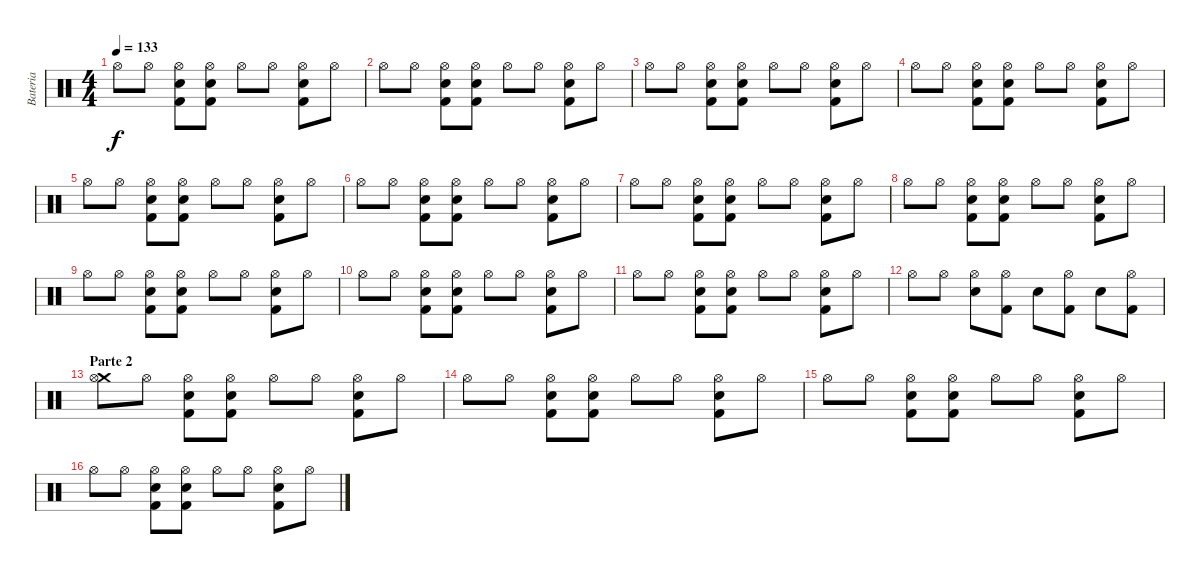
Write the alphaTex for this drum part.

\track ("Bateria" "Bateria") {instrument percussion}
\staff {score}
\articulation defaults
\ts (4 4)
\tempo 133
\clef neutral
\ks c "Hi-Hat (open)".8{dy f} "Hi-Hat (open)".8
("Kick (hit) 2" "Hi-Hat (open)" "Electric Snare (hit)").8 ("Kick (hit) 2" "Hi-Hat (open)" "Electric Snare (hit)").8 "Hi-Hat (open)".8 "Hi-Hat (open)".8 ("Kick (hit) 2" "Hi-Hat (open)" "Electric Snare (hit)").8 "Hi-Hat (open)".8 |
"Hi-Hat (open)".8 "Hi-Hat (open)".8 ("Kick (hit) 2" "Hi-Hat (open)" "Electric Snare (hit)").8 ("Kick (hit) 2" "Hi-Hat (open)" "Electric Snare (hit)").8 "Hi-Hat (open)".8 "Hi-Hat (open)".8 ("Kick (hit) 2" "Hi-Hat (open)" "Electric Snare (hit)").8 "Hi-Hat (open)".8 |
"Hi-Hat (open)".8 "Hi-Hat (open)".8 ("Kick (hit) 2" "Hi-Hat (open)" "Electric Snare (hit)").8 ("Kick (hit) 2" "Hi-Hat (open)" "Electric Snare (hit)").8 "Hi-Hat (open)".8 "Hi-Hat (open)".8 ("Kick (hit) 2" "Hi-Hat (open)" "Electric Snare (hit)").8 "Hi-Hat (open)".8 |
"Hi-Hat (open)".8 "Hi-Hat (open)".8 ("Kick (hit) 2" "Hi-Hat (open)" "Electric Snare (hit)").8 ("Kick (hit) 2" "Hi-Hat (open)" "Electric Snare (hit)").8 "Hi-Hat (open)".8 "Hi-Hat (open)".8 ("Kick (hit) 2" "Hi-Hat (open)" "Electric Snare (hit)").8 "Hi-Hat (open)".8 |
"Hi-Hat (open)".8 "Hi-Hat (open)".8 ("Kick (hit) 2" "Hi-Hat (open)" "Electric Snare (hit)").8 ("Kick (hit) 2" "Hi-Hat (open)" "Electric Snare (hit)").8 "Hi-Hat (open)".8 "Hi-Hat (open)".8 ("Kick (hit) 2" "Hi-Hat (open)" "Electric Snare (hit)").8 "Hi-Hat (open)".8 |
"Hi-Hat (open)".8 "Hi-Hat (open)".8 ("Kick (hit) 2" "Hi-Hat (open)" "Electric Snare (hit)").8 ("Kick (hit) 2" "Hi-Hat (open)" "Electric Snare (hit)").8 "Hi-Hat (open)".8 "Hi-Hat (open)".8 ("Kick (hit) 2" "Hi-Hat (open)" "Electric Snare (hit)").8 "Hi-Hat (open)".8 |
"Hi-Hat (open)".8 "Hi-Hat (open)".8 ("Kick (hit) 2" "Hi-Hat (open)" "Electric Snare (hit)").8 ("Kick (hit) 2" "Hi-Hat (open)" "Electric Snare (hit)").8 "Hi-Hat (open)".8 "Hi-Hat (open)".8 ("Kick (hit) 2" "Hi-Hat (open)" "Electric Snare (hit)").8 "Hi-Hat (open)".8 |
"Hi-Hat (open)".8 "Hi-Hat (open)".8 ("Kick (hit) 2" "Hi-Hat (open)" "Electric Snare (hit)").8 ("Kick (hit) 2" "Hi-Hat (open)" "Electric Snare (hit)").8 "Hi-Hat (open)".8 "Hi-Hat (open)".8 ("Kick (hit) 2" "Hi-Hat (open)" "Electric Snare (hit)").8 "Hi-Hat (open)".8 |
"Hi-Hat (open)".8 "Hi-Hat (open)".8 ("Kick (hit) 2" "Hi-Hat (open)" "Electric Snare (hit)").8 ("Kick (hit) 2" "Hi-Hat (open)" "Electric Snare (hit)").8 "Hi-Hat (open)".8 "Hi-Hat (open)".8 ("Kick (hit) 2" "Hi-Hat (open)" "Electric Snare (hit)").8 "Hi-Hat (open)".8 |
"Hi-Hat (open)".8 "Hi-Hat (open)".8 ("Kick (hit) 2" "Hi-Hat (open)" "Electric Snare (hit)").8 ("Kick (hit) 2" "Hi-Hat (open)" "Electric Snare (hit)").8 "Hi-Hat (open)".8 "Hi-Hat (open)".8 ("Kick (hit) 2" "Hi-Hat (open)" "Electric Snare (hit)").8 "Hi-Hat (open)".8 |
"Hi-Hat (open)".8 "Hi-Hat (open)".8 ("Kick (hit) 2" "Hi-Hat (open)" "Electric Snare (hit)").8 ("Kick (hit) 2" "Hi-Hat (open)" "Electric Snare (hit)").8 "Hi-Hat (open)".8 "Hi-Hat (open)".8 ("Kick (hit) 2" "Hi-Hat (open)" "Electric Snare (hit)").8 "Hi-Hat (open)".8 |
"Hi-Hat (open)".8 "Hi-Hat (open)".8 ("Hi-Hat (open)" "Electric Snare (hit)").8 ("Kick (hit) 2" "Hi-Hat (open)").8 "Electric Snare (hit)".8 ("Kick (hit) 2" "Hi-Hat (open)").8 "Electric Snare (hit)".8 ("Kick (hit) 2" "Hi-Hat (open)").8 |
\section ("" "Parte 2")
("Crash medium (hit)" "Hi-Hat (open)").8 "Hi-Hat (open)".8 ("Kick (hit) 2" "Hi-Hat (open)" "Electric Snare (hit)").8 ("Kick (hit) 2" "Hi-Hat (open)" "Electric Snare (hit)").8 "Hi-Hat (open)".8 "Hi-Hat (open)".8 ("Kick (hit) 2" "Hi-Hat (open)" "Electric Snare (hit)").8 "Hi-Hat (open)".8 |
"Hi-Hat (open)".8 "Hi-Hat (open)".8 ("Kick (hit) 2" "Hi-Hat (open)" "Electric Snare (hit)").8 ("Kick (hit) 2" "Hi-Hat (open)" "Electric Snare (hit)").8 "Hi-Hat (open)".8 "Hi-Hat (open)".8 ("Kick (hit) 2" "Hi-Hat (open)" "Electric Snare (hit)").8 "Hi-Hat (open)".8 |
"Hi-Hat (open)".8 "Hi-Hat (open)".8 ("Kick (hit) 2" "Hi-Hat (open)" "Electric Snare (hit)").8 ("Kick (hit) 2" "Hi-Hat (open)" "Electric Snare (hit)").8 "Hi-Hat (open)".8 "Hi-Hat (open)".8 ("Kick (hit) 2" "Hi-Hat (open)" "Electric Snare (hit)").8 "Hi-Hat (open)".8 |
"Hi-Hat (open)".8 "Hi-Hat (open)".8 ("Kick (hit) 2" "Hi-Hat (open)" "Electric Snare (hit)").8 ("Kick (hit) 2" "Hi-Hat (open)" "Electric Snare (hit)").8 "Hi-Hat (open)".8 "Hi-Hat (open)".8 ("Kick (hit) 2" "Hi-Hat (open)" "Electric Snare (hit)").8 "Hi-Hat (open)".8
